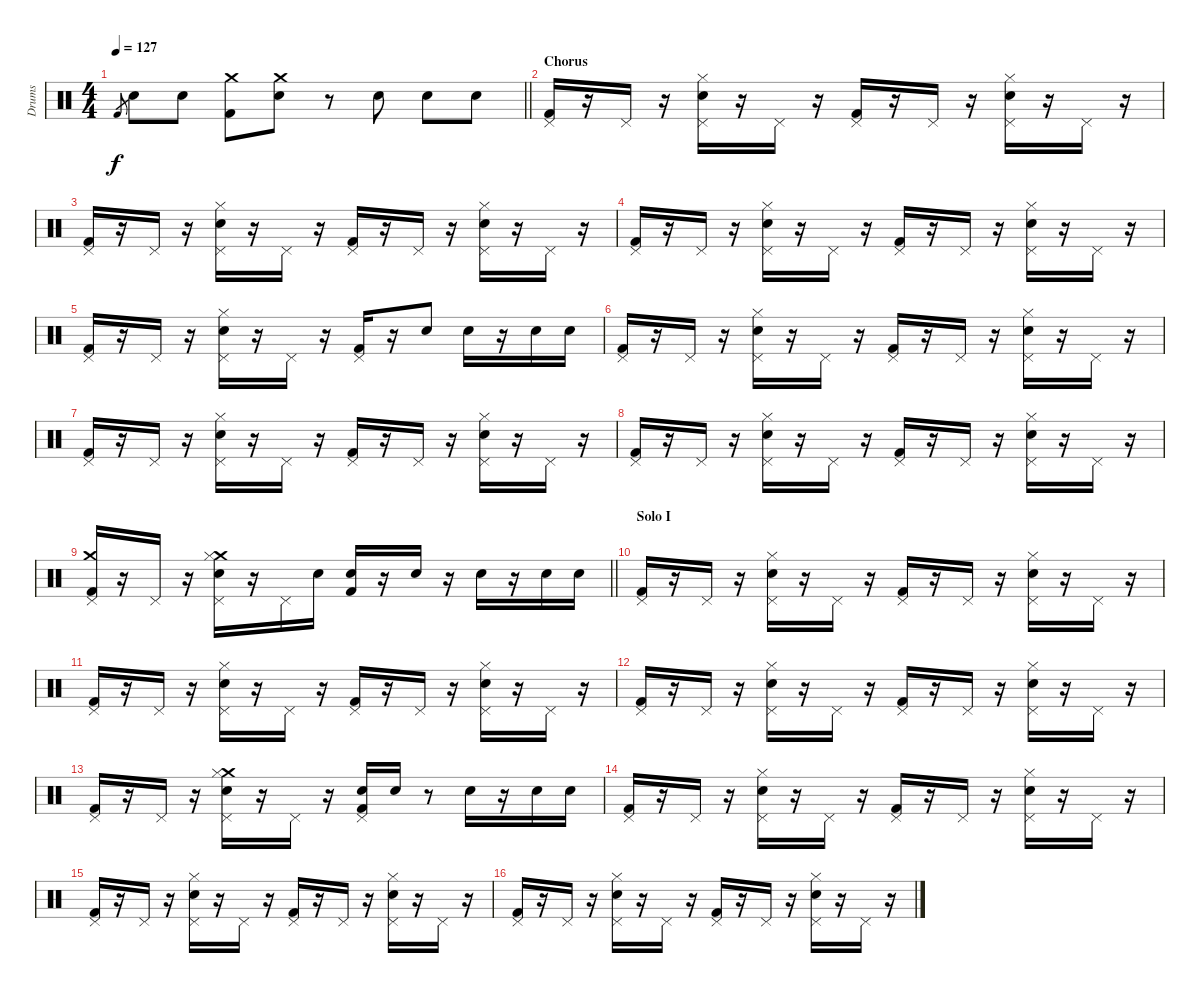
\track ("Drums" "Drums") {instrument percussion}
\staff {score}
\articulation defaults
\ts (4 4)
\tempo 127
\clef neutral
\barLineRight lightlight
\ks c "Kick (hit) 2".8{gr dy f} "Electric Snare (hit)".8 "Electric Snare (hit)".8
("Crash medium (hit)" "Kick (hit) 2").8 ("Crash medium (hit)" "Electric Snare (hit)").8 r.8 "Electric Snare (hit)".8 "Electric Snare (hit)".8 "Electric Snare (hit)".8 |
\section ("" "Chorus")
("Pedal Hi-Hat (hit)" "Kick (hit) 2").16 r.16 "Pedal Hi-Hat (hit)".16 r.16 ("Hi-Hat (closed)" "Pedal Hi-Hat (hit)" "Electric Snare (hit)").16 r.16 "Pedal Hi-Hat (hit)".16 r.16 ("Pedal Hi-Hat (hit)" "Kick (hit) 2").16 r.16 "Pedal Hi-Hat (hit)".16 r.16 ("Hi-Hat (closed)" "Pedal Hi-Hat (hit)" "Electric Snare (hit)").16 r.16 "Pedal Hi-Hat (hit)".16 r.16 |
("Pedal Hi-Hat (hit)" "Kick (hit) 2").16 r.16 "Pedal Hi-Hat (hit)".16 r.16 ("Hi-Hat (closed)" "Pedal Hi-Hat (hit)" "Electric Snare (hit)").16 r.16 "Pedal Hi-Hat (hit)".16 r.16 ("Pedal Hi-Hat (hit)" "Kick (hit) 2").16 r.16 "Pedal Hi-Hat (hit)".16 r.16 ("Hi-Hat (closed)" "Pedal Hi-Hat (hit)" "Electric Snare (hit)").16 r.16 "Pedal Hi-Hat (hit)".16 r.16 |
("Pedal Hi-Hat (hit)" "Kick (hit) 2").16 r.16 "Pedal Hi-Hat (hit)".16 r.16 ("Hi-Hat (closed)" "Pedal Hi-Hat (hit)" "Electric Snare (hit)").16 r.16 "Pedal Hi-Hat (hit)".16 r.16 ("Pedal Hi-Hat (hit)" "Kick (hit) 2").16 r.16 "Pedal Hi-Hat (hit)".16 r.16 ("Hi-Hat (closed)" "Pedal Hi-Hat (hit)" "Electric Snare (hit)").16 r.16 "Pedal Hi-Hat (hit)".16 r.16 |
("Pedal Hi-Hat (hit)" "Kick (hit) 2").16 r.16 "Pedal Hi-Hat (hit)".16 r.16 ("Hi-Hat (closed)" "Pedal Hi-Hat (hit)" "Electric Snare (hit)").16 r.16 "Pedal Hi-Hat (hit)".16 r.16 ("Pedal Hi-Hat (hit)" "Kick (hit) 2").16 r.16 "Electric Snare (hit)".8 "Electric Snare (hit)".16 r.16 "Electric Snare (hit)".16 "Electric Snare (hit)".16 |
("Pedal Hi-Hat (hit)" "Kick (hit) 2").16 r.16 "Pedal Hi-Hat (hit)".16 r.16 ("Hi-Hat (closed)" "Pedal Hi-Hat (hit)" "Electric Snare (hit)").16 r.16 "Pedal Hi-Hat (hit)".16 r.16 ("Pedal Hi-Hat (hit)" "Kick (hit) 2").16 r.16 "Pedal Hi-Hat (hit)".16 r.16 ("Hi-Hat (closed)" "Pedal Hi-Hat (hit)" "Electric Snare (hit)").16 r.16 "Pedal Hi-Hat (hit)".16 r.16 |
("Pedal Hi-Hat (hit)" "Kick (hit) 2").16 r.16 "Pedal Hi-Hat (hit)".16 r.16 ("Hi-Hat (closed)" "Pedal Hi-Hat (hit)" "Electric Snare (hit)").16 r.16 "Pedal Hi-Hat (hit)".16 r.16 ("Pedal Hi-Hat (hit)" "Kick (hit) 2").16 r.16 "Pedal Hi-Hat (hit)".16 r.16 ("Hi-Hat (closed)" "Pedal Hi-Hat (hit)" "Electric Snare (hit)").16 r.16 "Pedal Hi-Hat (hit)".16 r.16 |
("Pedal Hi-Hat (hit)" "Kick (hit) 2").16 r.16 "Pedal Hi-Hat (hit)".16 r.16 ("Hi-Hat (closed)" "Pedal Hi-Hat (hit)" "Electric Snare (hit)").16 r.16 "Pedal Hi-Hat (hit)".16 r.16 ("Pedal Hi-Hat (hit)" "Kick (hit) 2").16 r.16 "Pedal Hi-Hat (hit)".16 r.16 ("Hi-Hat (closed)" "Pedal Hi-Hat (hit)" "Electric Snare (hit)").16 r.16 "Pedal Hi-Hat (hit)".16 r.16 |
\barLineRight lightlight
("Crash medium (hit)" "Pedal Hi-Hat (hit)" "Kick (hit) 2").16 r.16 "Pedal Hi-Hat (hit)".16 r.16 ("Crash medium (hit)" "Hi-Hat (closed)" "Pedal Hi-Hat (hit)" "Electric Snare (hit)").16 r.16 "Pedal Hi-Hat (hit)".16 "Electric Snare (hit)".16 ("Electric Snare (hit)" "Kick (hit) 2").16 r.16 "Electric Snare (hit)".16 r.16 "Electric Snare (hit)".16 r.16 "Electric Snare (hit)".16 "Electric Snare (hit)".16 |
\section ("" "Solo I")
("Pedal Hi-Hat (hit)" "Kick (hit) 2").16 r.16 "Pedal Hi-Hat (hit)".16 r.16 ("Hi-Hat (closed)" "Pedal Hi-Hat (hit)" "Electric Snare (hit)").16 r.16 "Pedal Hi-Hat (hit)".16 r.16 ("Pedal Hi-Hat (hit)" "Kick (hit) 2").16 r.16 "Pedal Hi-Hat (hit)".16 r.16 ("Hi-Hat (closed)" "Pedal Hi-Hat (hit)" "Electric Snare (hit)").16 r.16 "Pedal Hi-Hat (hit)".16 r.16 |
("Pedal Hi-Hat (hit)" "Kick (hit) 2").16 r.16 "Pedal Hi-Hat (hit)".16 r.16 ("Hi-Hat (closed)" "Pedal Hi-Hat (hit)" "Electric Snare (hit)").16 r.16 "Pedal Hi-Hat (hit)".16 r.16 ("Pedal Hi-Hat (hit)" "Kick (hit) 2").16 r.16 "Pedal Hi-Hat (hit)".16 r.16 ("Hi-Hat (closed)" "Pedal Hi-Hat (hit)" "Electric Snare (hit)").16 r.16 "Pedal Hi-Hat (hit)".16 r.16 |
("Pedal Hi-Hat (hit)" "Kick (hit) 2").16 r.16 "Pedal Hi-Hat (hit)".16 r.16 ("Hi-Hat (closed)" "Pedal Hi-Hat (hit)" "Electric Snare (hit)").16 r.16 "Pedal Hi-Hat (hit)".16 r.16 ("Pedal Hi-Hat (hit)" "Kick (hit) 2").16 r.16 "Pedal Hi-Hat (hit)".16 r.16 ("Hi-Hat (closed)" "Pedal Hi-Hat (hit)" "Electric Snare (hit)").16 r.16 "Pedal Hi-Hat (hit)".16 r.16 |
("Pedal Hi-Hat (hit)" "Kick (hit) 2").16 r.16 "Pedal Hi-Hat (hit)".16 r.16 ("Crash medium (hit)" "Hi-Hat (closed)" "Pedal Hi-Hat (hit)" "Electric Snare (hit)").16 r.16 "Pedal Hi-Hat (hit)".16 r.16 ("Pedal Hi-Hat (hit)" "Electric Snare (hit)" "Kick (hit) 2").16 "Electric Snare (hit)".16 r.8 "Electric Snare (hit)".16 r.16 "Electric Snare (hit)".16 "Electric Snare (hit)".16 |
("Pedal Hi-Hat (hit)" "Kick (hit) 2").16 r.16 "Pedal Hi-Hat (hit)".16 r.16 ("Hi-Hat (closed)" "Pedal Hi-Hat (hit)" "Electric Snare (hit)").16 r.16 "Pedal Hi-Hat (hit)".16 r.16 ("Pedal Hi-Hat (hit)" "Kick (hit) 2").16 r.16 "Pedal Hi-Hat (hit)".16 r.16 ("Hi-Hat (closed)" "Pedal Hi-Hat (hit)" "Electric Snare (hit)").16 r.16 "Pedal Hi-Hat (hit)".16 r.16 |
("Pedal Hi-Hat (hit)" "Kick (hit) 2").16 r.16 "Pedal Hi-Hat (hit)".16 r.16 ("Hi-Hat (closed)" "Pedal Hi-Hat (hit)" "Electric Snare (hit)").16 r.16 "Pedal Hi-Hat (hit)".16 r.16 ("Pedal Hi-Hat (hit)" "Kick (hit) 2").16 r.16 "Pedal Hi-Hat (hit)".16 r.16 ("Hi-Hat (closed)" "Pedal Hi-Hat (hit)" "Electric Snare (hit)").16 r.16 "Pedal Hi-Hat (hit)".16 r.16 |
("Pedal Hi-Hat (hit)" "Kick (hit) 2").16 r.16 "Pedal Hi-Hat (hit)".16 r.16 ("Hi-Hat (closed)" "Pedal Hi-Hat (hit)" "Electric Snare (hit)").16 r.16 "Pedal Hi-Hat (hit)".16 r.16 ("Pedal Hi-Hat (hit)" "Kick (hit) 2").16 r.16 "Pedal Hi-Hat (hit)".16 r.16 ("Hi-Hat (closed)" "Pedal Hi-Hat (hit)" "Electric Snare (hit)").16 r.16 "Pedal Hi-Hat (hit)".16 r.16
